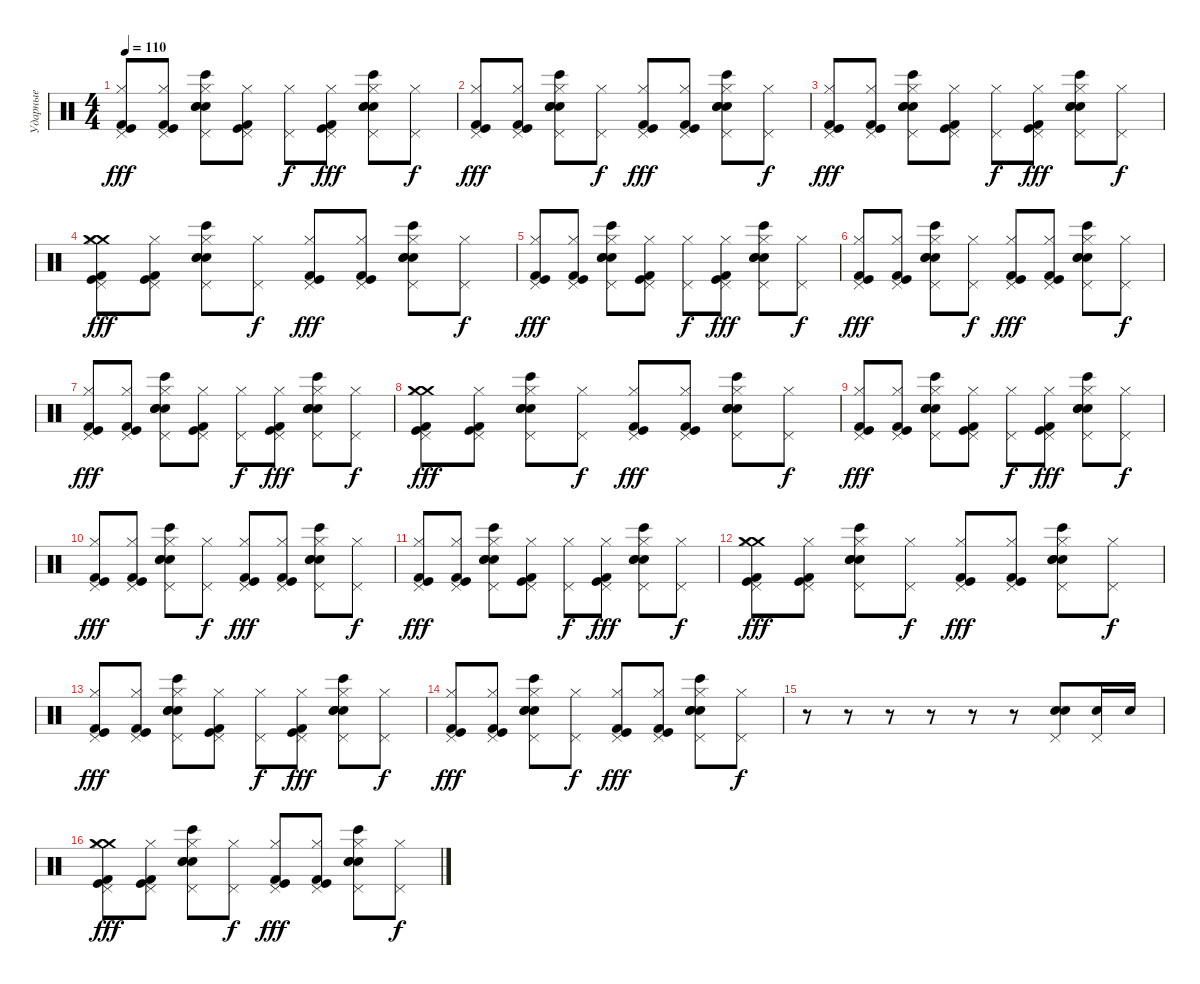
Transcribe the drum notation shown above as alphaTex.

\track ("Ударные" "Ударные") {instrument percussion}
\staff {score}
\articulation defaults
\ts (4 4)
\tempo 110
\clef neutral
\ks c
("Kick (hit) 2" "Kick (hit)" "Hi-Hat (closed)" "Pedal Hi-Hat (hit)").8{dy fff} ("Kick (hit) 2" "Kick (hit)" "Hi-Hat (closed)" "Pedal Hi-Hat (hit)").8 ("Bongo High (hit)" "Snare (hit) 2" "Snare (hit) 2" "Snare (hit) 2" "Hi-Hat (closed)" "Pedal Hi-Hat (hit)").8 ("Kick (hit) 2" "Kick (hit)" "Hi-Hat (closed)" "Pedal Hi-Hat (hit)").8 ("Hi-Hat (closed)" "Pedal Hi-Hat (hit)").8{dy f} ("Kick (hit) 2" "Kick (hit)" "Hi-Hat (closed)" "Pedal Hi-Hat (hit)").8{dy fff} ("Bongo High (hit)" "Snare (hit) 2" "Snare (hit) 2" "Snare (hit) 2" "Hi-Hat (closed)" "Pedal Hi-Hat (hit)").8 ("Hi-Hat (closed)" "Pedal Hi-Hat (hit)").8{dy f} |
("Kick (hit) 2" "Kick (hit)" "Hi-Hat (closed)" "Pedal Hi-Hat (hit)").8{dy fff} ("Kick (hit) 2" "Kick (hit)" "Hi-Hat (closed)" "Pedal Hi-Hat (hit)").8 ("Bongo High (hit)" "Snare (hit) 2" "Snare (hit) 2" "Snare (hit) 2" "Hi-Hat (closed)" "Pedal Hi-Hat (hit)").8 ("Hi-Hat (closed)" "Pedal Hi-Hat (hit)").8{dy f} ("Kick (hit) 2" "Kick (hit)" "Hi-Hat (closed)" "Pedal Hi-Hat (hit)").8{dy fff} ("Kick (hit) 2" "Kick (hit)" "Hi-Hat (closed)" "Pedal Hi-Hat (hit)").8 ("Bongo High (hit)" "Snare (hit) 2" "Snare (hit) 2" "Snare (hit) 2" "Hi-Hat (closed)" "Pedal Hi-Hat (hit)").8 ("Hi-Hat (closed)" "Pedal Hi-Hat (hit)").8{dy f} |
("Kick (hit) 2" "Kick (hit)" "Hi-Hat (closed)" "Pedal Hi-Hat (hit)").8{dy fff} ("Kick (hit) 2" "Kick (hit)" "Hi-Hat (closed)" "Pedal Hi-Hat (hit)").8 ("Bongo High (hit)" "Snare (hit) 2" "Snare (hit) 2" "Snare (hit) 2" "Hi-Hat (closed)" "Pedal Hi-Hat (hit)").8 ("Kick (hit) 2" "Kick (hit)" "Hi-Hat (closed)" "Pedal Hi-Hat (hit)").8 ("Hi-Hat (closed)" "Pedal Hi-Hat (hit)").8{dy f} ("Kick (hit) 2" "Kick (hit)" "Hi-Hat (closed)" "Pedal Hi-Hat (hit)").8{dy fff} ("Bongo High (hit)" "Snare (hit) 2" "Snare (hit) 2" "Snare (hit) 2" "Hi-Hat (closed)" "Pedal Hi-Hat (hit)").8 ("Hi-Hat (closed)" "Pedal Hi-Hat (hit)").8{dy f} |
("Crash medium (hit)" "Crash medium (hit)" "Kick (hit) 2" "Kick (hit)" "Hi-Hat (closed)" "Pedal Hi-Hat (hit)").8{dy fff} ("Kick (hit) 2" "Kick (hit)" "Hi-Hat (closed)" "Pedal Hi-Hat (hit)").8 ("Bongo High (hit)" "Snare (hit) 2" "Snare (hit) 2" "Snare (hit) 2" "Hi-Hat (closed)" "Pedal Hi-Hat (hit)").8 ("Hi-Hat (closed)" "Pedal Hi-Hat (hit)").8{dy f} ("Kick (hit) 2" "Kick (hit)" "Hi-Hat (closed)" "Pedal Hi-Hat (hit)").8{dy fff} ("Kick (hit) 2" "Kick (hit)" "Hi-Hat (closed)" "Pedal Hi-Hat (hit)").8 ("Bongo High (hit)" "Snare (hit) 2" "Snare (hit) 2" "Snare (hit) 2" "Hi-Hat (closed)" "Pedal Hi-Hat (hit)").8 ("Hi-Hat (closed)" "Pedal Hi-Hat (hit)").8{dy f} |
("Kick (hit) 2" "Kick (hit)" "Hi-Hat (closed)" "Pedal Hi-Hat (hit)").8{dy fff} ("Kick (hit) 2" "Kick (hit)" "Hi-Hat (closed)" "Pedal Hi-Hat (hit)").8 ("Bongo High (hit)" "Snare (hit) 2" "Snare (hit) 2" "Snare (hit) 2" "Hi-Hat (closed)" "Pedal Hi-Hat (hit)").8 ("Kick (hit) 2" "Kick (hit)" "Hi-Hat (closed)" "Pedal Hi-Hat (hit)").8 ("Hi-Hat (closed)" "Pedal Hi-Hat (hit)").8{dy f} ("Kick (hit) 2" "Kick (hit)" "Hi-Hat (closed)" "Pedal Hi-Hat (hit)").8{dy fff} ("Bongo High (hit)" "Snare (hit) 2" "Snare (hit) 2" "Snare (hit) 2" "Hi-Hat (closed)" "Pedal Hi-Hat (hit)").8 ("Hi-Hat (closed)" "Pedal Hi-Hat (hit)").8{dy f} |
("Kick (hit) 2" "Kick (hit)" "Hi-Hat (closed)" "Pedal Hi-Hat (hit)").8{dy fff} ("Kick (hit) 2" "Kick (hit)" "Hi-Hat (closed)" "Pedal Hi-Hat (hit)").8 ("Bongo High (hit)" "Snare (hit) 2" "Snare (hit) 2" "Snare (hit) 2" "Hi-Hat (closed)" "Pedal Hi-Hat (hit)").8 ("Hi-Hat (closed)" "Pedal Hi-Hat (hit)").8{dy f} ("Kick (hit) 2" "Kick (hit)" "Hi-Hat (closed)" "Pedal Hi-Hat (hit)").8{dy fff} ("Kick (hit) 2" "Kick (hit)" "Hi-Hat (closed)" "Pedal Hi-Hat (hit)").8 ("Bongo High (hit)" "Snare (hit) 2" "Snare (hit) 2" "Snare (hit) 2" "Hi-Hat (closed)" "Pedal Hi-Hat (hit)").8 ("Hi-Hat (closed)" "Pedal Hi-Hat (hit)").8{dy f} |
("Kick (hit) 2" "Kick (hit)" "Hi-Hat (closed)" "Pedal Hi-Hat (hit)").8{dy fff} ("Kick (hit) 2" "Kick (hit)" "Hi-Hat (closed)" "Pedal Hi-Hat (hit)").8 ("Bongo High (hit)" "Snare (hit) 2" "Snare (hit) 2" "Snare (hit) 2" "Hi-Hat (closed)" "Pedal Hi-Hat (hit)").8 ("Kick (hit) 2" "Kick (hit)" "Hi-Hat (closed)" "Pedal Hi-Hat (hit)").8 ("Hi-Hat (closed)" "Pedal Hi-Hat (hit)").8{dy f} ("Kick (hit) 2" "Kick (hit)" "Hi-Hat (closed)" "Pedal Hi-Hat (hit)").8{dy fff} ("Bongo High (hit)" "Snare (hit) 2" "Snare (hit) 2" "Snare (hit) 2" "Hi-Hat (closed)" "Pedal Hi-Hat (hit)").8 ("Hi-Hat (closed)" "Pedal Hi-Hat (hit)").8{dy f} |
("Crash medium (hit)" "Crash medium (hit)" "Kick (hit) 2" "Kick (hit)" "Hi-Hat (closed)" "Pedal Hi-Hat (hit)").8{dy fff} ("Kick (hit) 2" "Kick (hit)" "Hi-Hat (closed)" "Pedal Hi-Hat (hit)").8 ("Bongo High (hit)" "Snare (hit) 2" "Snare (hit) 2" "Snare (hit) 2" "Hi-Hat (closed)" "Pedal Hi-Hat (hit)").8 ("Hi-Hat (closed)" "Pedal Hi-Hat (hit)").8{dy f} ("Kick (hit) 2" "Kick (hit)" "Hi-Hat (closed)" "Pedal Hi-Hat (hit)").8{dy fff} ("Kick (hit) 2" "Kick (hit)" "Hi-Hat (closed)" "Pedal Hi-Hat (hit)").8 ("Bongo High (hit)" "Snare (hit) 2" "Snare (hit) 2" "Snare (hit) 2" "Hi-Hat (closed)" "Pedal Hi-Hat (hit)").8 ("Hi-Hat (closed)" "Pedal Hi-Hat (hit)").8{dy f} |
("Kick (hit) 2" "Kick (hit)" "Hi-Hat (closed)" "Pedal Hi-Hat (hit)").8{dy fff} ("Kick (hit) 2" "Kick (hit)" "Hi-Hat (closed)" "Pedal Hi-Hat (hit)").8 ("Bongo High (hit)" "Snare (hit) 2" "Snare (hit) 2" "Snare (hit) 2" "Hi-Hat (closed)" "Pedal Hi-Hat (hit)").8 ("Kick (hit) 2" "Kick (hit)" "Hi-Hat (closed)" "Pedal Hi-Hat (hit)").8 ("Hi-Hat (closed)" "Pedal Hi-Hat (hit)").8{dy f} ("Kick (hit) 2" "Kick (hit)" "Hi-Hat (closed)" "Pedal Hi-Hat (hit)").8{dy fff} ("Bongo High (hit)" "Snare (hit) 2" "Snare (hit) 2" "Snare (hit) 2" "Hi-Hat (closed)" "Pedal Hi-Hat (hit)").8 ("Hi-Hat (closed)" "Pedal Hi-Hat (hit)").8{dy f} |
("Kick (hit) 2" "Kick (hit)" "Hi-Hat (closed)" "Pedal Hi-Hat (hit)").8{dy fff} ("Kick (hit) 2" "Kick (hit)" "Hi-Hat (closed)" "Pedal Hi-Hat (hit)").8 ("Bongo High (hit)" "Snare (hit) 2" "Snare (hit) 2" "Snare (hit) 2" "Hi-Hat (closed)" "Pedal Hi-Hat (hit)").8 ("Hi-Hat (closed)" "Pedal Hi-Hat (hit)").8{dy f} ("Kick (hit) 2" "Kick (hit)" "Hi-Hat (closed)" "Pedal Hi-Hat (hit)").8{dy fff} ("Kick (hit) 2" "Kick (hit)" "Hi-Hat (closed)" "Pedal Hi-Hat (hit)").8 ("Bongo High (hit)" "Snare (hit) 2" "Snare (hit) 2" "Snare (hit) 2" "Hi-Hat (closed)" "Pedal Hi-Hat (hit)").8 ("Hi-Hat (closed)" "Pedal Hi-Hat (hit)").8{dy f} |
("Kick (hit) 2" "Kick (hit)" "Hi-Hat (closed)" "Pedal Hi-Hat (hit)").8{dy fff} ("Kick (hit) 2" "Kick (hit)" "Hi-Hat (closed)" "Pedal Hi-Hat (hit)").8 ("Bongo High (hit)" "Snare (hit) 2" "Snare (hit) 2" "Snare (hit) 2" "Hi-Hat (closed)" "Pedal Hi-Hat (hit)").8 ("Kick (hit) 2" "Kick (hit)" "Hi-Hat (closed)" "Pedal Hi-Hat (hit)").8 ("Hi-Hat (closed)" "Pedal Hi-Hat (hit)").8{dy f} ("Kick (hit) 2" "Kick (hit)" "Hi-Hat (closed)" "Pedal Hi-Hat (hit)").8{dy fff} ("Bongo High (hit)" "Snare (hit) 2" "Snare (hit) 2" "Snare (hit) 2" "Hi-Hat (closed)" "Pedal Hi-Hat (hit)").8 ("Hi-Hat (closed)" "Pedal Hi-Hat (hit)").8{dy f} |
("Crash medium (hit)" "Crash medium (hit)" "Kick (hit) 2" "Kick (hit)" "Hi-Hat (closed)" "Pedal Hi-Hat (hit)").8{dy fff} ("Kick (hit) 2" "Kick (hit)" "Hi-Hat (closed)" "Pedal Hi-Hat (hit)").8 ("Bongo High (hit)" "Snare (hit) 2" "Snare (hit) 2" "Snare (hit) 2" "Hi-Hat (closed)" "Pedal Hi-Hat (hit)").8 ("Hi-Hat (closed)" "Pedal Hi-Hat (hit)").8{dy f} ("Kick (hit) 2" "Kick (hit)" "Hi-Hat (closed)" "Pedal Hi-Hat (hit)").8{dy fff} ("Kick (hit) 2" "Kick (hit)" "Hi-Hat (closed)" "Pedal Hi-Hat (hit)").8 ("Bongo High (hit)" "Snare (hit) 2" "Snare (hit) 2" "Snare (hit) 2" "Hi-Hat (closed)" "Pedal Hi-Hat (hit)").8 ("Hi-Hat (closed)" "Pedal Hi-Hat (hit)").8{dy f} |
("Kick (hit) 2" "Kick (hit)" "Hi-Hat (closed)" "Pedal Hi-Hat (hit)").8{dy fff} ("Kick (hit) 2" "Kick (hit)" "Hi-Hat (closed)" "Pedal Hi-Hat (hit)").8 ("Bongo High (hit)" "Snare (hit) 2" "Snare (hit) 2" "Snare (hit) 2" "Hi-Hat (closed)" "Pedal Hi-Hat (hit)").8 ("Kick (hit) 2" "Kick (hit)" "Hi-Hat (closed)" "Pedal Hi-Hat (hit)").8 ("Hi-Hat (closed)" "Pedal Hi-Hat (hit)").8{dy f} ("Kick (hit) 2" "Kick (hit)" "Hi-Hat (closed)" "Pedal Hi-Hat (hit)").8{dy fff} ("Bongo High (hit)" "Snare (hit) 2" "Snare (hit) 2" "Snare (hit) 2" "Hi-Hat (closed)" "Pedal Hi-Hat (hit)").8 ("Hi-Hat (closed)" "Pedal Hi-Hat (hit)").8{dy f} |
("Kick (hit) 2" "Kick (hit)" "Hi-Hat (closed)" "Pedal Hi-Hat (hit)").8{dy fff} ("Kick (hit) 2" "Kick (hit)" "Hi-Hat (closed)" "Pedal Hi-Hat (hit)").8 ("Bongo High (hit)" "Snare (hit) 2" "Snare (hit) 2" "Snare (hit) 2" "Hi-Hat (closed)" "Pedal Hi-Hat (hit)").8 ("Hi-Hat (closed)" "Pedal Hi-Hat (hit)").8{dy f} ("Kick (hit) 2" "Kick (hit)" "Hi-Hat (closed)" "Pedal Hi-Hat (hit)").8{dy fff} ("Kick (hit) 2" "Kick (hit)" "Hi-Hat (closed)" "Pedal Hi-Hat (hit)").8 ("Bongo High (hit)" "Snare (hit) 2" "Snare (hit) 2" "Snare (hit) 2" "Hi-Hat (closed)" "Pedal Hi-Hat (hit)").8 ("Hi-Hat (closed)" "Pedal Hi-Hat (hit)").8{dy f} |
r.8 r.8 r.8 r.8 r.8 r.8 ("Hand Clap (hit)" "Snare (hit) 2" "Pedal Hi-Hat (hit)").8 ("Snare (hit) 2" "Pedal Hi-Hat (hit)").16 "Snare (hit) 2".16 |
("Crash medium (hit)" "Crash medium (hit)" "Kick (hit) 2" "Kick (hit)" "Hi-Hat (closed)" "Pedal Hi-Hat (hit)").8{dy fff} ("Kick (hit) 2" "Kick (hit)" "Hi-Hat (closed)" "Pedal Hi-Hat (hit)").8 ("Bongo High (hit)" "Snare (hit) 2" "Snare (hit) 2" "Snare (hit) 2" "Hi-Hat (closed)" "Pedal Hi-Hat (hit)").8 ("Hi-Hat (closed)" "Pedal Hi-Hat (hit)").8{dy f} ("Kick (hit) 2" "Kick (hit)" "Hi-Hat (closed)" "Pedal Hi-Hat (hit)").8{dy fff} ("Kick (hit) 2" "Kick (hit)" "Hi-Hat (closed)" "Pedal Hi-Hat (hit)").8 ("Bongo High (hit)" "Snare (hit) 2" "Snare (hit) 2" "Snare (hit) 2" "Hi-Hat (closed)" "Pedal Hi-Hat (hit)").8 ("Hi-Hat (closed)" "Pedal Hi-Hat (hit)").8{dy f}
